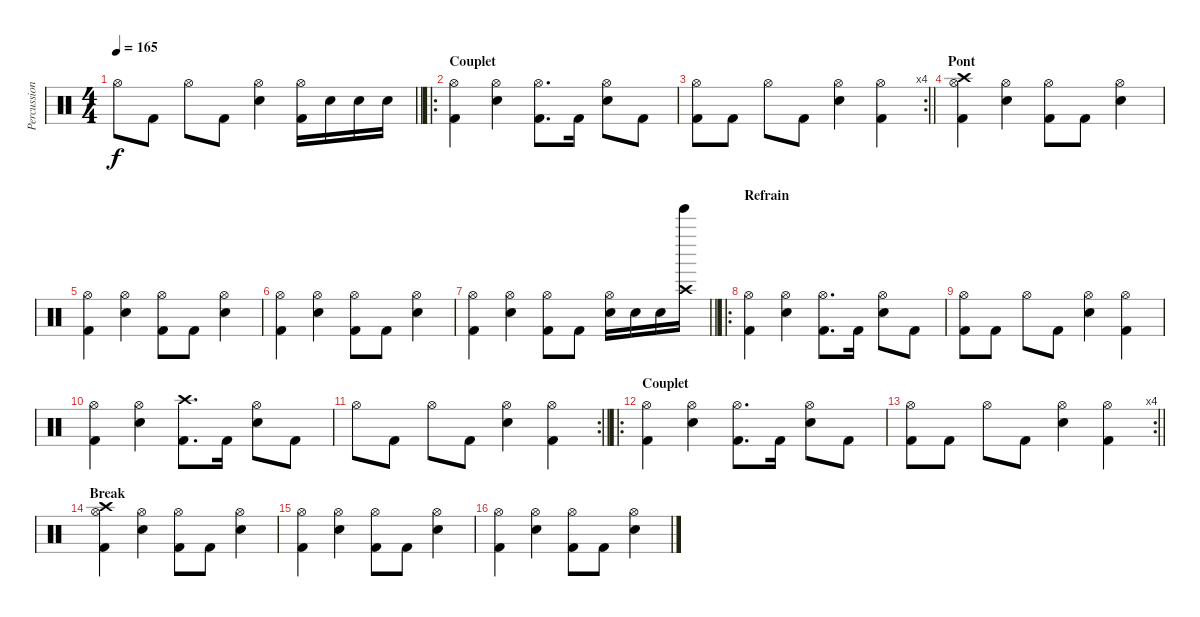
\track ("Percussions" "Percussion") {instrument percussion}
\staff {score}
\articulation defaults
\ts (4 4)
\tempo 165
\clef neutral
\barLineRight lightlight
\ks c "Hi-Hat (open)".8{dy f} "Kick (hit) 2".8 "Hi-Hat (open)".8 "Kick (hit) 2".8
("Hi-Hat (open)" "Snare (hit) 2").4 ("Hi-Hat (open)" "Kick (hit) 2").16 "Snare (hit) 2".16 "Snare (hit) 2".16 "Snare (hit) 2".16 |
\ro
\section ("" "Couplet")
("Hi-Hat (open)" "Kick (hit) 2").4 ("Hi-Hat (open)" "Snare (hit) 2").4 ("Hi-Hat (open)" "Kick (hit) 2").8{d} "Kick (hit) 2".16 ("Hi-Hat (open)" "Snare (hit) 2").8 "Kick (hit) 2".8 |
\rc 4
\barLineRight lightlight
("Hi-Hat (open)" "Kick (hit) 2").8 "Kick (hit) 2".8 "Hi-Hat (open)".8 "Kick (hit) 2".8 ("Hi-Hat (open)" "Snare (hit) 2").4 ("Hi-Hat (open)" "Kick (hit) 2").4 |
\section ("" "Pont")
("Crash high (hit)" "Hi-Hat (open)" "Kick (hit) 2").4 ("Hi-Hat (open)" "Snare (hit) 2").4 ("Hi-Hat (open)" "Kick (hit) 2").8 "Kick (hit) 2".8 ("Hi-Hat (open)" "Snare (hit) 2").4 |
("Hi-Hat (open)" "Kick (hit) 2").4 ("Hi-Hat (open)" "Snare (hit) 2").4 ("Hi-Hat (open)" "Kick (hit) 2").8 "Kick (hit) 2".8 ("Hi-Hat (open)" "Snare (hit) 2").4 |
("Hi-Hat (open)" "Kick (hit) 2").4 ("Hi-Hat (open)" "Snare (hit) 2").4 ("Hi-Hat (open)" "Kick (hit) 2").8 "Kick (hit) 2".8 ("Hi-Hat (open)" "Snare (hit) 2").4 |
\barLineRight lightlight
("Hi-Hat (open)" "Kick (hit) 2").4 ("Hi-Hat (open)" "Snare (hit) 2").4 ("Hi-Hat (open)" "Kick (hit) 2").8 "Kick (hit) 2".8 ("Hi-Hat (open)" "Snare (hit) 2").16 "Snare (hit) 2".16 "Snare (hit) 2".16 ("Crash high (hit)" "Tinkle Bell (hit)").16 |
\ro
\section ("" "Refrain")
("Hi-Hat (open)" "Kick (hit) 2").4 ("Hi-Hat (open)" "Snare (hit) 2").4 ("Hi-Hat (open)" "Kick (hit) 2").8{d} "Kick (hit) 2".16 ("Hi-Hat (open)" "Snare (hit) 2").8 "Kick (hit) 2".8 |
("Hi-Hat (open)" "Kick (hit) 2").8 "Kick (hit) 2".8 "Hi-Hat (open)".8 "Kick (hit) 2".8 ("Hi-Hat (open)" "Snare (hit) 2").4 ("Hi-Hat (open)" "Kick (hit) 2").4 |
("Hi-Hat (open)" "Kick (hit) 2").4 ("Hi-Hat (open)" "Snare (hit) 2").4 ("Crash high (hit)" "Kick (hit) 2").8{d} "Kick (hit) 2".16 ("Hi-Hat (open)" "Snare (hit) 2").8 "Kick (hit) 2".8 |
\rc 2
\barLineRight lightlight "Hi-Hat (open)".8 "Kick (hit) 2".8 "Hi-Hat (open)".8 "Kick (hit) 2".8
("Hi-Hat (open)" "Snare (hit) 2").4 ("Hi-Hat (open)" "Kick (hit) 2").4 |
\ro
\section ("" "Couplet")
("Hi-Hat (open)" "Kick (hit) 2").4 ("Hi-Hat (open)" "Snare (hit) 2").4 ("Hi-Hat (open)" "Kick (hit) 2").8{d} "Kick (hit) 2".16 ("Hi-Hat (open)" "Snare (hit) 2").8 "Kick (hit) 2".8 |
\rc 4
\barLineRight lightlight
("Hi-Hat (open)" "Kick (hit) 2").8 "Kick (hit) 2".8 "Hi-Hat (open)".8 "Kick (hit) 2".8 ("Hi-Hat (open)" "Snare (hit) 2").4 ("Hi-Hat (open)" "Kick (hit) 2").4 |
\section ("" "Break")
("Crash high (hit)" "Hi-Hat (open)" "Kick (hit) 2").4 ("Hi-Hat (open)" "Snare (hit) 2").4 ("Hi-Hat (open)" "Kick (hit) 2").8 "Kick (hit) 2".8 ("Hi-Hat (open)" "Snare (hit) 2").4 |
("Hi-Hat (open)" "Kick (hit) 2").4 ("Hi-Hat (open)" "Snare (hit) 2").4 ("Hi-Hat (open)" "Kick (hit) 2").8 "Kick (hit) 2".8 ("Hi-Hat (open)" "Snare (hit) 2").4 |
("Hi-Hat (open)" "Kick (hit) 2").4 ("Hi-Hat (open)" "Snare (hit) 2").4 ("Hi-Hat (open)" "Kick (hit) 2").8 "Kick (hit) 2".8 ("Hi-Hat (open)" "Snare (hit) 2").4
